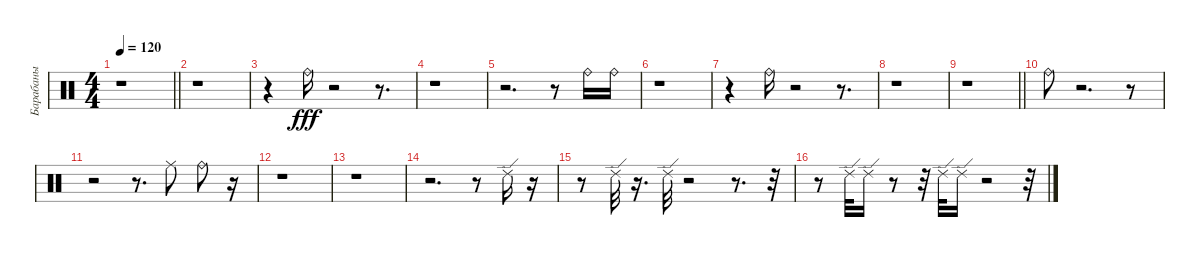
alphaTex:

\track ("Барабаны" "Барабаны") {instrument percussion}
\staff {score}
\articulation defaults
\ts (4 4)
\tempo 120
\clef neutral
\barLineRight lightlight
\ks c
r.1{dy fff} |
\section ("" " ")
r.1 |
r.4 "Ride (bell)".16 r.2 r.8{d} |
r.1 |
r.2{d} r.8 "Ride (bell)".16 "Ride (bell)".16 |
r.1 |
r.4 "Ride (bell)".16 r.2 r.8{d} |
r.1 |
\barLineRight lightlight
r.1 |
\section ("" " ")
"Ride (bell)".8 r.2{d} r.8 |
r.2 r.8{d} "Ride (middle)".8 "Ride (bell)".8 r.16 |
r.1 |
r.1 |
r.2{d} r.8 "Ride (edge) 2".16 r.16 |
r.8 "Ride (edge) 2".32 r.16{d} "Ride (edge) 2".32 r.2 r.8{d} r.32 |
r.8 "Ride (edge) 2".32 "Ride (edge) 2".16 r.8 r.32 "Ride (edge) 2".32 "Ride (edge) 2".16 r.2 r.32
